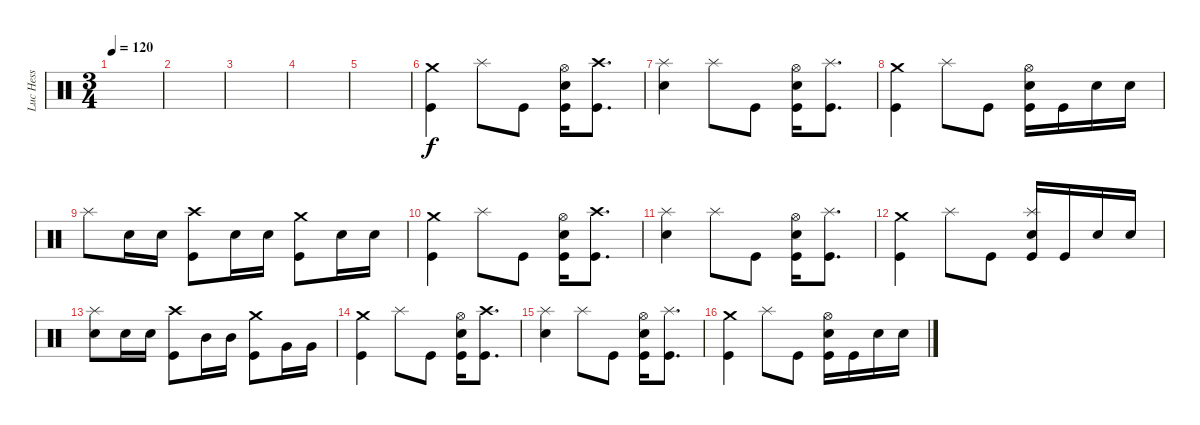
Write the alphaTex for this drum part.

\track ("Luc Hess" "Luc Hess") {instrument percussion}
\staff {score}
\articulation defaults
\ts (3 4)
\tempo 120
\clef neutral
\ks c
|
|
|
|
|
("Crash medium (hit)" "Kick (hit)").4 "Splash (hit)".8 "Kick (hit)".8 ("Snare (hit) 2" "Hi-Hat (open)" "Kick (hit)").16 ("Crash high (hit)" "Kick (hit)").8{d} |
("Snare (hit) 2" "Splash (hit)").4 "Splash (hit)".8 "Kick (hit)".8 ("Snare (hit) 2" "Hi-Hat (open)" "Kick (hit)").16 ("Splash (hit)" "Kick (hit)").8{d} |
("Crash medium (hit)" "Kick (hit)").4 "Splash (hit)".8 "Kick (hit)".8 ("Snare (hit) 2" "Hi-Hat (open)" "Kick (hit)").16 "Kick (hit)".16 "Snare (hit) 2".16 "Snare (hit) 2".16 |
"Splash (hit)".8 "Snare (hit) 2".16 "Snare (hit) 2".16 ("Crash high (hit)" "Kick (hit)").8 "Snare (hit) 2".16 "Snare (hit) 2".16 ("Crash medium (hit)" "Kick (hit)").8 "Snare (hit) 2".16 "Snare (hit) 2".16 |
("Crash medium (hit)" "Kick (hit)").4 "Splash (hit)".8 "Kick (hit)".8 ("Snare (hit) 2" "Hi-Hat (open)" "Kick (hit)").16 ("Crash high (hit)" "Kick (hit)").8{d} |
("Snare (hit) 2" "Splash (hit)").4 "Splash (hit)".8 "Kick (hit)".8 ("Snare (hit) 2" "Hi-Hat (open)" "Kick (hit)").16 ("Splash (hit)" "Kick (hit)").8{d} |
("Crash medium (hit)" "Kick (hit)").4 "Splash (hit)".8 "Kick (hit)".8 ("Snare (hit) 2" "Splash (hit)" "Kick (hit)").16 "Kick (hit)".16 "Snare (hit) 2".16 "Snare (hit) 2".16 |
("Snare (hit) 2" "Splash (hit)").8 "Snare (hit) 2".16 "Snare (hit) 2".16 ("Crash high (hit)" "Kick (hit)").8 "Mid Tom (hit)".16 "Mid Tom (hit)".16 ("Crash medium (hit)" "Kick (hit)").8 "Very Low Tom (hit)".16 "Very Low Tom (hit)".16 |
("Crash medium (hit)" "Kick (hit)").4 "Splash (hit)".8 "Kick (hit)".8 ("Snare (hit) 2" "Hi-Hat (open)" "Kick (hit)").16 ("Crash high (hit)" "Kick (hit)").8{d} |
("Snare (hit) 2" "Splash (hit)").4 "Splash (hit)".8 "Kick (hit)".8 ("Snare (hit) 2" "Hi-Hat (open)" "Kick (hit)").16 ("Splash (hit)" "Kick (hit)").8{d} |
("Crash medium (hit)" "Kick (hit)").4 "Splash (hit)".8 "Kick (hit)".8 ("Snare (hit) 2" "Hi-Hat (open)" "Kick (hit)").16 "Kick (hit)".16 "Snare (hit) 2".16 "Snare (hit) 2".16
